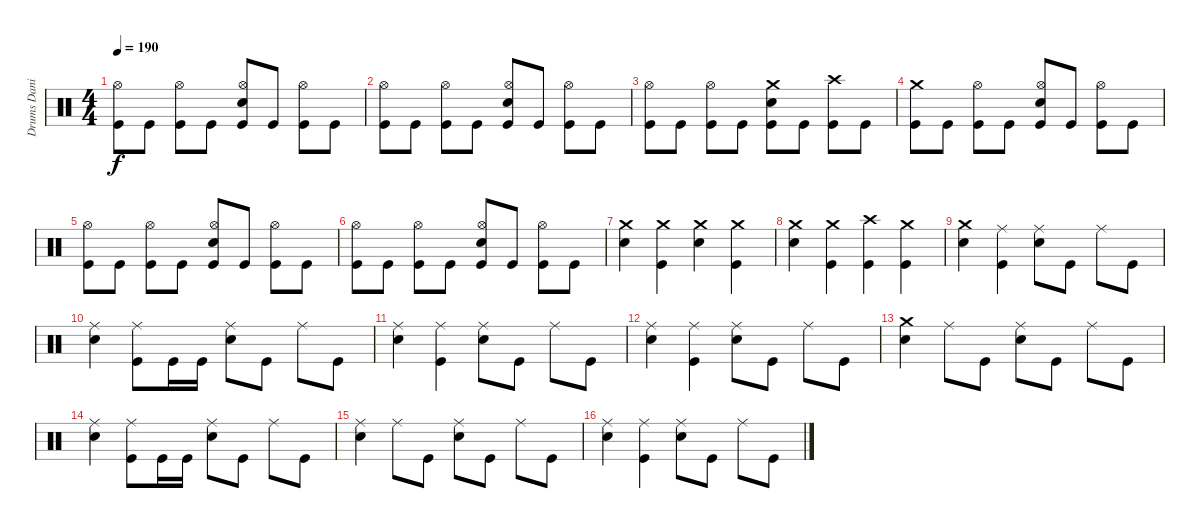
\track ("Drums Daniel" "Drums Dani") {instrument percussion}
\staff {score}
\articulation defaults
\ts (4 4)
\tempo 190
\clef neutral
\ks c
("Kick (hit)" "Hi-Hat (open)").8{dy f} "Kick (hit)".8 ("Kick (hit)" "Hi-Hat (open)").8 "Kick (hit)".8 ("Kick (hit)" "Electric Snare (hit)" "Hi-Hat (open)").8 "Kick (hit)".8 ("Kick (hit)" "Hi-Hat (open)").8 "Kick (hit)".8 |
("Kick (hit)" "Hi-Hat (open)").8 "Kick (hit)".8 ("Kick (hit)" "Hi-Hat (open)").8 "Kick (hit)".8 ("Kick (hit)" "Electric Snare (hit)" "Hi-Hat (open)").8 "Kick (hit)".8 ("Kick (hit)" "Hi-Hat (open)").8 "Kick (hit)".8 |
("Kick (hit)" "Hi-Hat (open)").8 "Kick (hit)".8 ("Kick (hit)" "Hi-Hat (open)").8 "Kick (hit)".8 ("Kick (hit)" "Electric Snare (hit)" "Crash medium (hit)").8 "Kick (hit)".8 ("Kick (hit)" "Crash high (hit)").8 "Kick (hit)".8 |
("Kick (hit)" "Crash medium (hit)").8 "Kick (hit)".8 ("Kick (hit)" "Hi-Hat (open)").8 "Kick (hit)".8 ("Kick (hit)" "Electric Snare (hit)" "Hi-Hat (open)").8 "Kick (hit)".8 ("Kick (hit)" "Hi-Hat (open)").8 "Kick (hit)".8 |
("Kick (hit)" "Hi-Hat (open)").8 "Kick (hit)".8 ("Kick (hit)" "Hi-Hat (open)").8 "Kick (hit)".8 ("Kick (hit)" "Electric Snare (hit)" "Hi-Hat (open)").8 "Kick (hit)".8 ("Kick (hit)" "Hi-Hat (open)").8 "Kick (hit)".8 |
("Kick (hit)" "Hi-Hat (open)").8 "Kick (hit)".8 ("Kick (hit)" "Hi-Hat (open)").8 "Kick (hit)".8 ("Kick (hit)" "Electric Snare (hit)" "Hi-Hat (open)").8 "Kick (hit)".8 ("Kick (hit)" "Hi-Hat (open)").8 "Kick (hit)".8 |
("Electric Snare (hit)" "Crash medium (hit)").4 ("Kick (hit)" "Crash medium (hit)").4 ("Electric Snare (hit)" "Crash medium (hit)").4 ("Kick (hit)" "Crash medium (hit)").4 |
("Electric Snare (hit)" "Crash medium (hit)").4 ("Kick (hit)" "Crash medium (hit)").4 ("Kick (hit)" "Crash high (hit)").4 ("Kick (hit)" "Crash medium (hit)").4 |
("Electric Snare (hit)" "Crash medium (hit)").4 ("Kick (hit)" "Ride (middle)").4 ("Electric Snare (hit)" "Ride (middle)").8 "Kick (hit)".8 "Ride (middle)".8 "Kick (hit)".8 |
("Electric Snare (hit)" "Ride (middle)").4 ("Kick (hit)" "Ride (middle)").8 "Kick (hit)".16 "Kick (hit)".16 ("Electric Snare (hit)" "Ride (middle)").8 "Kick (hit)".8 "Ride (middle)".8 "Kick (hit)".8 |
("Electric Snare (hit)" "Ride (middle)").4 ("Kick (hit)" "Ride (middle)").4 ("Electric Snare (hit)" "Ride (middle)").8 "Kick (hit)".8 "Ride (middle)".8 "Kick (hit)".8 |
("Electric Snare (hit)" "Ride (middle)").4 ("Kick (hit)" "Ride (middle)").4 ("Electric Snare (hit)" "Ride (middle)").8 "Kick (hit)".8 "Ride (middle)".8 "Kick (hit)".8 |
("Electric Snare (hit)" "Crash medium (hit)").4 "Ride (middle)".8 "Kick (hit)".8 ("Electric Snare (hit)" "Ride (middle)").8 "Kick (hit)".8 "Ride (middle)".8 "Kick (hit)".8 |
("Electric Snare (hit)" "Ride (middle)").4 ("Kick (hit)" "Ride (middle)").8 "Kick (hit)".16 "Kick (hit)".16 ("Electric Snare (hit)" "Ride (middle)").8 "Kick (hit)".8 "Ride (middle)".8 "Kick (hit)".8 |
("Electric Snare (hit)" "Ride (middle)").4 "Ride (middle)".8 "Kick (hit)".8 ("Electric Snare (hit)" "Ride (middle)").8 "Kick (hit)".8 "Ride (middle)".8 "Kick (hit)".8 |
("Electric Snare (hit)" "Ride (middle)").4 ("Kick (hit)" "Ride (middle)").4 ("Electric Snare (hit)" "Ride (middle)").8 "Kick (hit)".8 "Ride (middle)".8 "Kick (hit)".8
